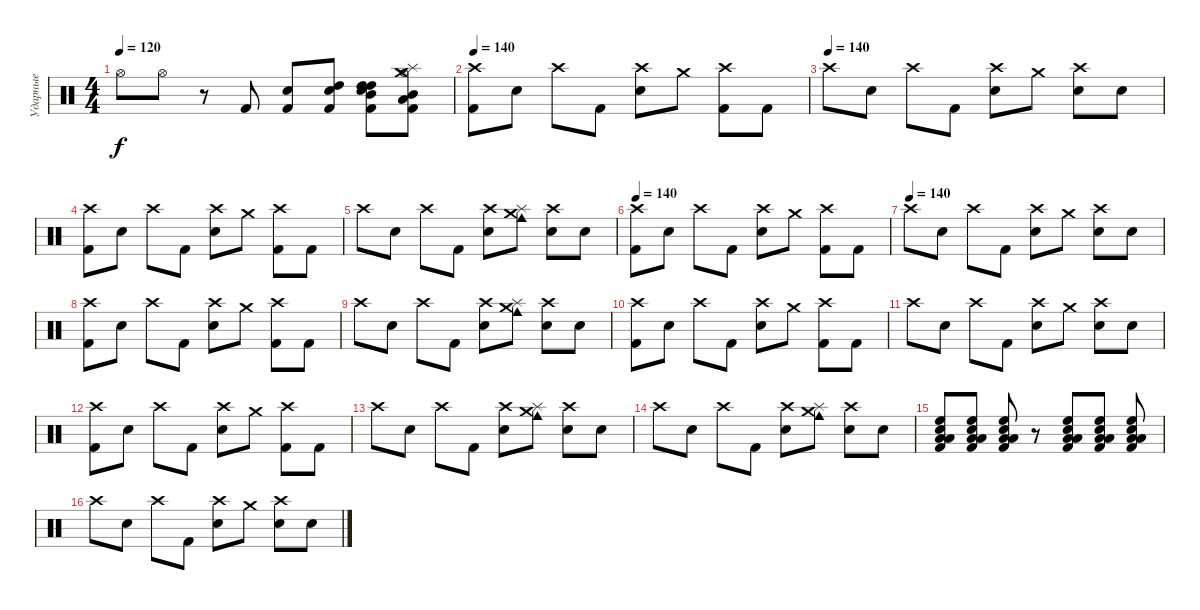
\track ("Ударные" "Ударные") {instrument percussion}
\staff {score}
\articulation defaults
\ts (4 4)
\tempo 120
\clef neutral
\ks c "Hi-Hat (open)".8{dy f} "Hi-Hat (open)".8
r.8 "Kick (hit) 2".8 ("Kick (hit) 2" "Snare (hit) 2").8 ("Kick (hit) 2" "Snare (hit) 2" "High Tom (hit)").8 ("Kick (hit) 2" "High Tom (hit)" "High Tom (hit)" "Mid Tom (hit)" "Snare (hit) 2").8 ("Kick (hit) 2" "Mid Tom (hit)" "Low Tom (hit)" "Crash medium (hit)" "Hi-Hat (open)" "Splash (hit)").8 |
\tempo 140
("Crash high (hit)" "Kick (hit) 2").8 "Electric Snare (hit)".8 "Crash high (hit)".8 "Kick (hit) 2".8 ("Crash high (hit)" "Electric Snare (hit)").8 "Crash medium (hit)".8 ("Crash high (hit)" "Kick (hit) 2").8 "Kick (hit) 2".8 |
\tempo (140)
"Crash high (hit)".8 "Electric Snare (hit)".8 "Crash high (hit)".8 "Kick (hit) 2".8 ("Crash high (hit)" "Electric Snare (hit)").8 "Crash medium (hit)".8 ("Crash high (hit)" "Electric Snare (hit)").8 "Electric Snare (hit)".8 |
("Crash high (hit)" "Kick (hit) 2").8 "Electric Snare (hit)".8 "Crash high (hit)".8 "Kick (hit) 2".8 ("Crash high (hit)" "Electric Snare (hit)").8 "Crash medium (hit)".8 ("Crash high (hit)" "Kick (hit) 2").8 "Kick (hit) 2".8 |
"Crash high (hit)".8 "Electric Snare (hit)".8 "Crash high (hit)".8 "Kick (hit) 2".8 ("Crash high (hit)" "Electric Snare (hit)").8 ("Splash (hit)" "Cowbell medium (hit)" "Crash medium (hit)").8 ("Crash high (hit)" "Electric Snare (hit)").8 "Electric Snare (hit)".8 |
\tempo 140
("Crash high (hit)" "Kick (hit) 2").8 "Electric Snare (hit)".8 "Crash high (hit)".8 "Kick (hit) 2".8 ("Crash high (hit)" "Electric Snare (hit)").8 "Crash medium (hit)".8 ("Crash high (hit)" "Kick (hit) 2").8 "Kick (hit) 2".8 |
\tempo (140)
"Crash high (hit)".8 "Electric Snare (hit)".8 "Crash high (hit)".8 "Kick (hit) 2".8 ("Crash high (hit)" "Electric Snare (hit)").8 "Crash medium (hit)".8 ("Crash high (hit)" "Electric Snare (hit)").8 "Electric Snare (hit)".8 |
("Crash high (hit)" "Kick (hit) 2").8 "Electric Snare (hit)".8 "Crash high (hit)".8 "Kick (hit) 2".8 ("Crash high (hit)" "Electric Snare (hit)").8 "Crash medium (hit)".8 ("Crash high (hit)" "Kick (hit) 2").8 "Kick (hit) 2".8 |
"Crash high (hit)".8 "Electric Snare (hit)".8 "Crash high (hit)".8 "Kick (hit) 2".8 ("Crash high (hit)" "Electric Snare (hit)").8 ("Splash (hit)" "Cowbell medium (hit)" "Crash medium (hit)").8 ("Crash high (hit)" "Electric Snare (hit)").8 "Electric Snare (hit)".8 |
("Crash high (hit)" "Kick (hit) 2").8 "Electric Snare (hit)".8 "Crash high (hit)".8 "Kick (hit) 2".8 ("Crash high (hit)" "Electric Snare (hit)").8 "Crash medium (hit)".8 ("Crash high (hit)" "Kick (hit) 2").8 "Kick (hit) 2".8 |
"Crash high (hit)".8 "Electric Snare (hit)".8 "Crash high (hit)".8 "Kick (hit) 2".8 ("Crash high (hit)" "Electric Snare (hit)").8 "Crash medium (hit)".8 ("Crash high (hit)" "Electric Snare (hit)").8 "Electric Snare (hit)".8 |
("Crash high (hit)" "Kick (hit) 2").8 "Electric Snare (hit)".8 "Crash high (hit)".8 "Kick (hit) 2".8 ("Crash high (hit)" "Electric Snare (hit)").8 "Crash medium (hit)".8 ("Crash high (hit)" "Kick (hit) 2").8 "Kick (hit) 2".8 |
"Crash high (hit)".8 "Electric Snare (hit)".8 "Crash high (hit)".8 "Kick (hit) 2".8 ("Crash high (hit)" "Electric Snare (hit)").8 ("Splash (hit)" "Cowbell medium (hit)" "Crash medium (hit)").8 ("Crash high (hit)" "Electric Snare (hit)").8 "Electric Snare (hit)".8 |
"Crash high (hit)".8 "Electric Snare (hit)".8 "Crash high (hit)".8 "Kick (hit) 2".8 ("Crash high (hit)" "Electric Snare (hit)").8 ("Splash (hit)" "Cowbell medium (hit)" "Crash medium (hit)").8 ("Crash high (hit)" "Electric Snare (hit)").8 "Electric Snare (hit)".8 |
("Kick (hit) 2" "Snare (hit) 2" "High Floor Tom (hit)" "Low Tom (hit)" "Low Floor Tom (hit)").8 ("Kick (hit) 2" "Snare (hit) 2" "High Floor Tom (hit)" "Low Tom (hit)" "Low Floor Tom (hit)").8 ("Kick (hit) 2" "Snare (hit) 2" "High Floor Tom (hit)" "Low Tom (hit)" "Low Floor Tom (hit)").8 r.8 ("Kick (hit) 2" "Snare (hit) 2" "High Floor Tom (hit)" "Low Tom (hit)" "Low Floor Tom (hit)").8 ("Kick (hit) 2" "Snare (hit) 2" "High Floor Tom (hit)" "Low Tom (hit)" "Low Floor Tom (hit)").8 ("Kick (hit) 2" "Snare (hit) 2" "High Floor Tom (hit)" "Low Tom (hit)" "Low Floor Tom (hit)").8 |
"Crash high (hit)".8 "Electric Snare (hit)".8 "Crash high (hit)".8 "Kick (hit) 2".8 ("Crash high (hit)" "Electric Snare (hit)").8 "Crash medium (hit)".8 ("Crash high (hit)" "Electric Snare (hit)").8 "Electric Snare (hit)".8
